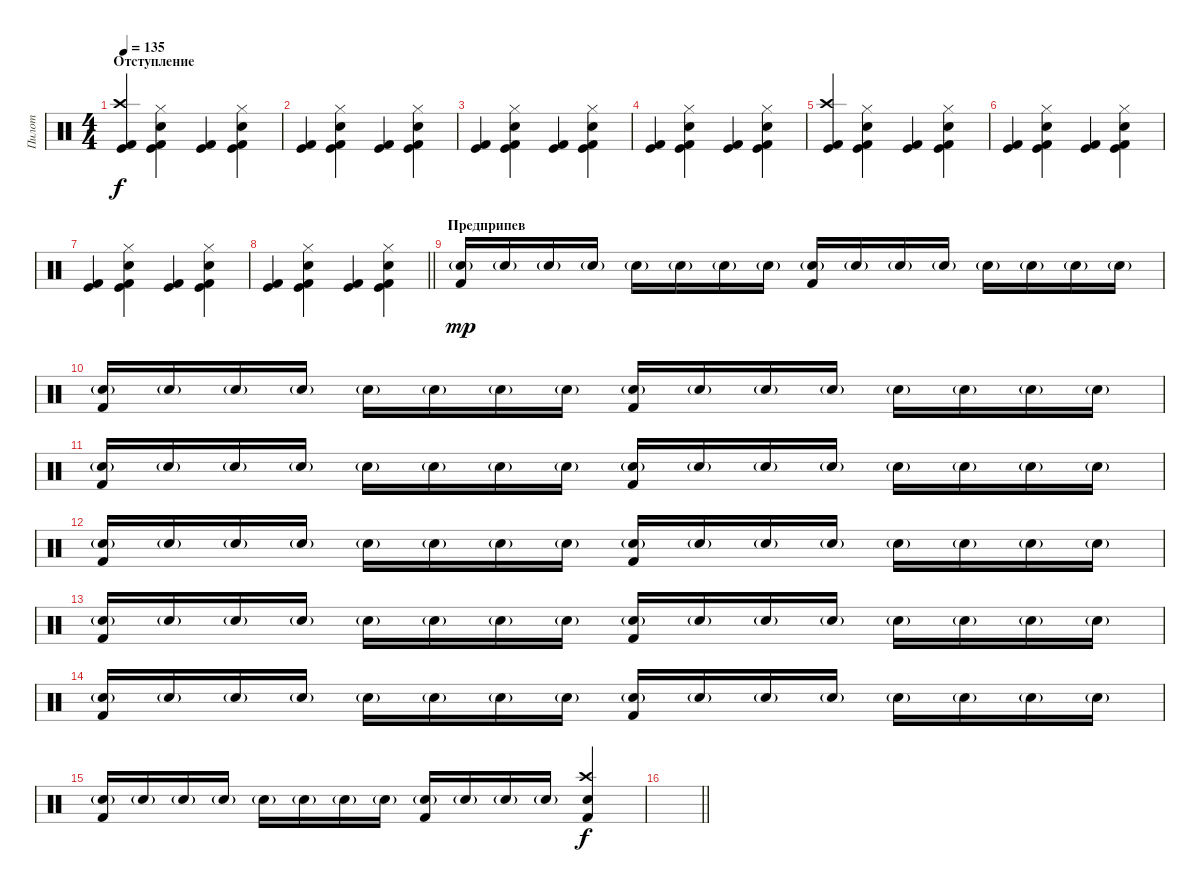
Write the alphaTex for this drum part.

\track ("Пилот" "Пилот") {instrument percussion}
\staff {score}
\articulation defaults
\ts (4 4)
\section ("" "Отступление")
\tempo 135
\clef neutral
\ks c
("Kick (hit) 2" "Crash high (hit)" "Kick (hit)").4{dy f} ("Kick (hit) 2" "Snare (hit) 2" "Hi-Hat (closed)" "Kick (hit)").4 ("Kick (hit) 2" "Kick (hit)").4 ("Kick (hit) 2" "Snare (hit) 2" "Hi-Hat (closed)" "Kick (hit)").4 |
("Kick (hit) 2" "Kick (hit)").4 ("Kick (hit) 2" "Snare (hit) 2" "Hi-Hat (closed)" "Kick (hit)").4 ("Kick (hit) 2" "Kick (hit)").4 ("Kick (hit) 2" "Snare (hit) 2" "Hi-Hat (closed)" "Kick (hit)").4 |
("Kick (hit) 2" "Kick (hit)").4 ("Kick (hit) 2" "Snare (hit) 2" "Hi-Hat (closed)" "Kick (hit)").4 ("Kick (hit) 2" "Kick (hit)").4 ("Kick (hit) 2" "Snare (hit) 2" "Hi-Hat (closed)" "Kick (hit)").4 |
("Kick (hit) 2" "Kick (hit)").4 ("Kick (hit) 2" "Snare (hit) 2" "Hi-Hat (closed)" "Kick (hit)").4 ("Kick (hit) 2" "Kick (hit)").4 ("Kick (hit) 2" "Snare (hit) 2" "Hi-Hat (closed)" "Kick (hit)").4 |
("Kick (hit) 2" "Crash high (hit)" "Kick (hit)").4 ("Kick (hit) 2" "Snare (hit) 2" "Hi-Hat (closed)" "Kick (hit)").4 ("Kick (hit) 2" "Kick (hit)").4 ("Kick (hit) 2" "Snare (hit) 2" "Hi-Hat (closed)" "Kick (hit)").4 |
("Kick (hit) 2" "Kick (hit)").4 ("Kick (hit) 2" "Snare (hit) 2" "Hi-Hat (closed)" "Kick (hit)").4 ("Kick (hit) 2" "Kick (hit)").4 ("Kick (hit) 2" "Snare (hit) 2" "Hi-Hat (closed)" "Kick (hit)").4 |
("Kick (hit) 2" "Kick (hit)").4 ("Kick (hit) 2" "Snare (hit) 2" "Hi-Hat (closed)" "Kick (hit)").4 ("Kick (hit) 2" "Kick (hit)").4 ("Kick (hit) 2" "Snare (hit) 2" "Hi-Hat (closed)" "Kick (hit)").4 |
\barLineRight lightlight
("Kick (hit) 2" "Kick (hit)").4 ("Kick (hit) 2" "Snare (hit) 2" "Hi-Hat (closed)" "Kick (hit)").4 ("Kick (hit) 2" "Kick (hit)").4 ("Kick (hit) 2" "Snare (hit) 2" "Hi-Hat (closed)" "Kick (hit)").4 |
\section ("" "Предприпев")
("Kick (hit) 2" "Snare (hit) 2"{g}).16{dy mp} "Snare (hit) 2"{g}.16 "Snare (hit) 2"{g}.16 "Snare (hit) 2"{g}.16 "Snare (hit) 2"{g}.16 "Snare (hit) 2"{g}.16 "Snare (hit) 2"{g}.16 "Snare (hit) 2"{g}.16 ("Kick (hit) 2" "Snare (hit) 2"{g}).16 "Snare (hit) 2"{g}.16 "Snare (hit) 2"{g}.16 "Snare (hit) 2"{g}.16 "Snare (hit) 2"{g}.16 "Snare (hit) 2"{g}.16 "Snare (hit) 2"{g}.16 "Snare (hit) 2"{g}.16 |
("Kick (hit) 2" "Snare (hit) 2"{g}).16 "Snare (hit) 2"{g}.16 "Snare (hit) 2"{g}.16 "Snare (hit) 2"{g}.16 "Snare (hit) 2"{g}.16 "Snare (hit) 2"{g}.16 "Snare (hit) 2"{g}.16 "Snare (hit) 2"{g}.16 ("Kick (hit) 2" "Snare (hit) 2"{g}).16 "Snare (hit) 2"{g}.16 "Snare (hit) 2"{g}.16 "Snare (hit) 2"{g}.16 "Snare (hit) 2"{g}.16 "Snare (hit) 2"{g}.16 "Snare (hit) 2"{g}.16 "Snare (hit) 2"{g}.16 |
("Kick (hit) 2" "Snare (hit) 2"{g}).16 "Snare (hit) 2"{g}.16 "Snare (hit) 2"{g}.16 "Snare (hit) 2"{g}.16 "Snare (hit) 2"{g}.16 "Snare (hit) 2"{g}.16 "Snare (hit) 2"{g}.16 "Snare (hit) 2"{g}.16 ("Kick (hit) 2" "Snare (hit) 2"{g}).16 "Snare (hit) 2"{g}.16 "Snare (hit) 2"{g}.16 "Snare (hit) 2"{g}.16 "Snare (hit) 2"{g}.16 "Snare (hit) 2"{g}.16 "Snare (hit) 2"{g}.16 "Snare (hit) 2"{g}.16 |
("Kick (hit) 2" "Snare (hit) 2"{g}).16 "Snare (hit) 2"{g}.16 "Snare (hit) 2"{g}.16 "Snare (hit) 2"{g}.16 "Snare (hit) 2"{g}.16 "Snare (hit) 2"{g}.16 "Snare (hit) 2"{g}.16 "Snare (hit) 2"{g}.16 ("Kick (hit) 2" "Snare (hit) 2"{g}).16 "Snare (hit) 2"{g}.16 "Snare (hit) 2"{g}.16 "Snare (hit) 2"{g}.16 "Snare (hit) 2"{g}.16 "Snare (hit) 2"{g}.16 "Snare (hit) 2"{g}.16 "Snare (hit) 2"{g}.16 |
("Kick (hit) 2" "Snare (hit) 2"{g}).16 "Snare (hit) 2"{g}.16 "Snare (hit) 2"{g}.16 "Snare (hit) 2"{g}.16 "Snare (hit) 2"{g}.16 "Snare (hit) 2"{g}.16 "Snare (hit) 2"{g}.16 "Snare (hit) 2"{g}.16 ("Kick (hit) 2" "Snare (hit) 2"{g}).16 "Snare (hit) 2"{g}.16 "Snare (hit) 2"{g}.16 "Snare (hit) 2"{g}.16 "Snare (hit) 2"{g}.16 "Snare (hit) 2"{g}.16 "Snare (hit) 2"{g}.16 "Snare (hit) 2"{g}.16 |
("Kick (hit) 2" "Snare (hit) 2"{g}).16 "Snare (hit) 2"{g}.16 "Snare (hit) 2"{g}.16 "Snare (hit) 2"{g}.16 "Snare (hit) 2"{g}.16 "Snare (hit) 2"{g}.16 "Snare (hit) 2"{g}.16 "Snare (hit) 2"{g}.16 ("Kick (hit) 2" "Snare (hit) 2"{g}).16 "Snare (hit) 2"{g}.16 "Snare (hit) 2"{g}.16 "Snare (hit) 2"{g}.16 "Snare (hit) 2"{g}.16 "Snare (hit) 2"{g}.16 "Snare (hit) 2"{g}.16 "Snare (hit) 2"{g}.16 |
("Kick (hit) 2" "Snare (hit) 2"{g}).16 "Snare (hit) 2"{g}.16 "Snare (hit) 2"{g}.16 "Snare (hit) 2"{g}.16 "Snare (hit) 2"{g}.16 "Snare (hit) 2"{g}.16 "Snare (hit) 2"{g}.16 "Snare (hit) 2"{g}.16 ("Kick (hit) 2" "Snare (hit) 2"{g}).16 "Snare (hit) 2"{g}.16 "Snare (hit) 2"{g}.16 "Snare (hit) 2"{g}.16 ("Crash high (hit)" "Kick (hit) 2" "Snare (hit) 2").4{dy f} |
\barLineRight lightlight
